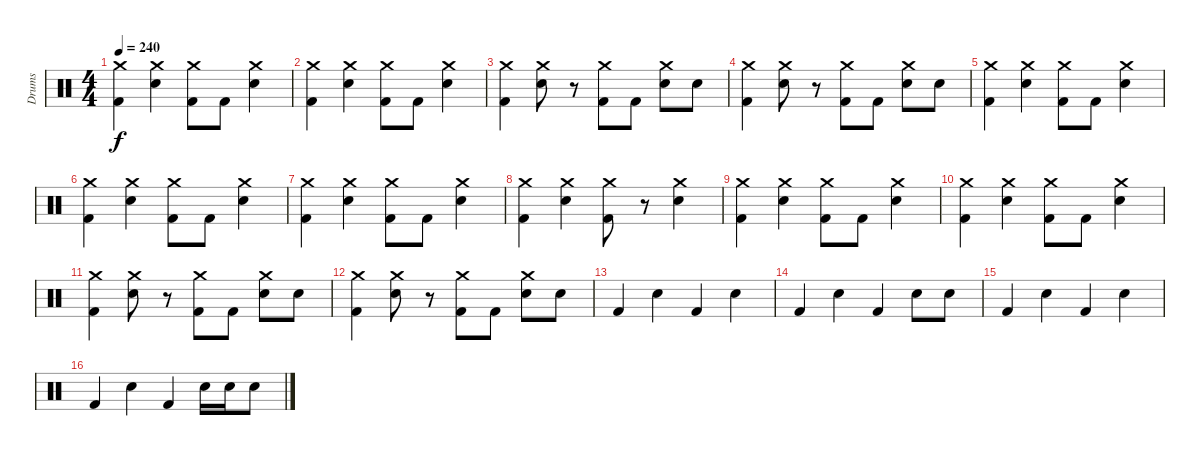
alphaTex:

\track ("Drums" "Drums") {instrument percussion}
\staff {score}
\articulation defaults
\ts (4 4)
\tempo 240
\clef neutral
\ks c
("Crash medium (hit)" "Kick (hit) 2").4{dy f} ("Crash medium (hit)" "Snare (hit) 2").4 ("Crash medium (hit)" "Kick (hit) 2").8 "Kick (hit) 2".8 ("Crash medium (hit)" "Snare (hit) 2").4 |
("Crash medium (hit)" "Kick (hit) 2").4 ("Crash medium (hit)" "Snare (hit) 2").4 ("Crash medium (hit)" "Kick (hit) 2").8 "Kick (hit) 2".8 ("Crash medium (hit)" "Snare (hit) 2").4 |
("Crash medium (hit)" "Kick (hit) 2").4 ("Crash medium (hit)" "Snare (hit) 2").8 r.8 ("Crash medium (hit)" "Kick (hit) 2").8 "Kick (hit) 2".8 ("Crash medium (hit)" "Snare (hit) 2").8 "Snare (hit) 2".8 |
("Crash medium (hit)" "Kick (hit) 2").4 ("Crash medium (hit)" "Snare (hit) 2").8 r.8 ("Crash medium (hit)" "Kick (hit) 2").8 "Kick (hit) 2".8 ("Crash medium (hit)" "Snare (hit) 2").8 "Snare (hit) 2".8 |
("Crash medium (hit)" "Kick (hit) 2").4 ("Crash medium (hit)" "Snare (hit) 2").4 ("Crash medium (hit)" "Kick (hit) 2").8 "Kick (hit) 2".8 ("Crash medium (hit)" "Snare (hit) 2").4 |
("Crash medium (hit)" "Kick (hit) 2").4 ("Crash medium (hit)" "Snare (hit) 2").4 ("Crash medium (hit)" "Kick (hit) 2").8 "Kick (hit) 2".8 ("Crash medium (hit)" "Snare (hit) 2").4 |
("Crash medium (hit)" "Kick (hit) 2").4 ("Crash medium (hit)" "Snare (hit) 2").4 ("Crash medium (hit)" "Kick (hit) 2").8 "Kick (hit) 2".8 ("Crash medium (hit)" "Snare (hit) 2").4 |
("Crash medium (hit)" "Kick (hit) 2").4 ("Crash medium (hit)" "Snare (hit) 2").4 ("Crash medium (hit)" "Kick (hit) 2").8 r.8 ("Crash medium (hit)" "Snare (hit) 2").4 |
("Crash medium (hit)" "Kick (hit) 2").4 ("Crash medium (hit)" "Snare (hit) 2").4 ("Crash medium (hit)" "Kick (hit) 2").8 "Kick (hit) 2".8 ("Crash medium (hit)" "Snare (hit) 2").4 |
("Crash medium (hit)" "Kick (hit) 2").4 ("Crash medium (hit)" "Snare (hit) 2").4 ("Crash medium (hit)" "Kick (hit) 2").8 "Kick (hit) 2".8 ("Crash medium (hit)" "Snare (hit) 2").4 |
("Crash medium (hit)" "Kick (hit) 2").4 ("Crash medium (hit)" "Snare (hit) 2").8 r.8 ("Crash medium (hit)" "Kick (hit) 2").8 "Kick (hit) 2".8 ("Crash medium (hit)" "Snare (hit) 2").8 "Snare (hit) 2".8 |
("Crash medium (hit)" "Kick (hit) 2").4 ("Crash medium (hit)" "Snare (hit) 2").8 r.8 ("Crash medium (hit)" "Kick (hit) 2").8 "Kick (hit) 2".8 ("Crash medium (hit)" "Snare (hit) 2").8 "Snare (hit) 2".8 |
"Kick (hit) 2".4 "Snare (hit) 2".4 "Kick (hit) 2".4 "Snare (hit) 2".4 |
"Kick (hit) 2".4 "Snare (hit) 2".4 "Kick (hit) 2".4 "Snare (hit) 2".8 "Snare (hit) 2".8 |
"Kick (hit) 2".4 "Snare (hit) 2".4 "Kick (hit) 2".4 "Snare (hit) 2".4 |
"Kick (hit) 2".4 "Snare (hit) 2".4 "Kick (hit) 2".4 "Snare (hit) 2".16 "Snare (hit) 2".16 "Snare (hit) 2".8
